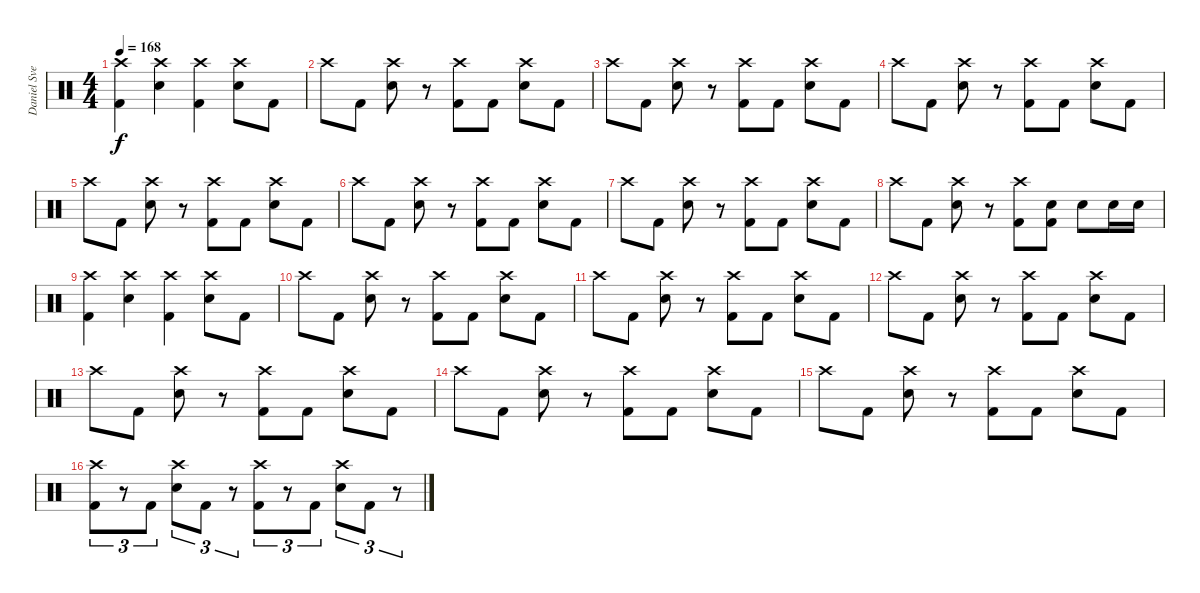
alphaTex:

\track ("Daniel Svensson" "Daniel Sve") {instrument percussion}
\staff {score}
\articulation defaults
\ts (4 4)
\tempo 168
\clef neutral
\ks c
("Crash high (hit)" "Kick (hit) 2").4{dy f} ("Crash high (hit)" "Electric Snare (hit)").4 ("Crash high (hit)" "Kick (hit) 2").4 ("Crash high (hit)" "Electric Snare (hit)").8 "Kick (hit) 2".8 |
"Crash high (hit)".8 "Kick (hit) 2".8 ("Crash high (hit)" "Electric Snare (hit)").8 r.8 ("Crash high (hit)" "Kick (hit) 2").8 "Kick (hit) 2".8 ("Crash high (hit)" "Electric Snare (hit)").8 "Kick (hit) 2".8 |
"Crash high (hit)".8 "Kick (hit) 2".8 ("Crash high (hit)" "Electric Snare (hit)").8 r.8 ("Crash high (hit)" "Kick (hit) 2").8 "Kick (hit) 2".8 ("Crash high (hit)" "Electric Snare (hit)").8 "Kick (hit) 2".8 |
"Crash high (hit)".8 "Kick (hit) 2".8 ("Crash high (hit)" "Electric Snare (hit)").8 r.8 ("Crash high (hit)" "Kick (hit) 2").8 "Kick (hit) 2".8 ("Crash high (hit)" "Electric Snare (hit)").8 "Kick (hit) 2".8 |
"Crash high (hit)".8 "Kick (hit) 2".8 ("Crash high (hit)" "Electric Snare (hit)").8 r.8 ("Crash high (hit)" "Kick (hit) 2").8 "Kick (hit) 2".8 ("Crash high (hit)" "Electric Snare (hit)").8 "Kick (hit) 2".8 |
"Crash high (hit)".8 "Kick (hit) 2".8 ("Crash high (hit)" "Electric Snare (hit)").8 r.8 ("Crash high (hit)" "Kick (hit) 2").8 "Kick (hit) 2".8 ("Crash high (hit)" "Electric Snare (hit)").8 "Kick (hit) 2".8 |
"Crash high (hit)".8 "Kick (hit) 2".8 ("Crash high (hit)" "Electric Snare (hit)").8 r.8 ("Crash high (hit)" "Kick (hit) 2").8 "Kick (hit) 2".8 ("Crash high (hit)" "Electric Snare (hit)").8 "Kick (hit) 2".8 |
"Crash high (hit)".8 "Kick (hit) 2".8 ("Crash high (hit)" "Electric Snare (hit)").8 r.8 ("Crash high (hit)" "Kick (hit) 2").8 ("Electric Snare (hit)" "Kick (hit) 2").8 "Electric Snare (hit)".8 "Electric Snare (hit)".16 "Electric Snare (hit)".16 |
("Crash high (hit)" "Kick (hit) 2").4 ("Crash high (hit)" "Electric Snare (hit)").4 ("Crash high (hit)" "Kick (hit) 2").4 ("Crash high (hit)" "Electric Snare (hit)").8 "Kick (hit) 2".8 |
"Crash high (hit)".8 "Kick (hit) 2".8 ("Crash high (hit)" "Electric Snare (hit)").8 r.8 ("Crash high (hit)" "Kick (hit) 2").8 "Kick (hit) 2".8 ("Crash high (hit)" "Electric Snare (hit)").8 "Kick (hit) 2".8 |
"Crash high (hit)".8 "Kick (hit) 2".8 ("Crash high (hit)" "Electric Snare (hit)").8 r.8 ("Crash high (hit)" "Kick (hit) 2").8 "Kick (hit) 2".8 ("Crash high (hit)" "Electric Snare (hit)").8 "Kick (hit) 2".8 |
"Crash high (hit)".8 "Kick (hit) 2".8 ("Crash high (hit)" "Electric Snare (hit)").8 r.8 ("Crash high (hit)" "Kick (hit) 2").8 "Kick (hit) 2".8 ("Crash high (hit)" "Electric Snare (hit)").8 "Kick (hit) 2".8 |
"Crash high (hit)".8 "Kick (hit) 2".8 ("Crash high (hit)" "Electric Snare (hit)").8 r.8 ("Crash high (hit)" "Kick (hit) 2").8 "Kick (hit) 2".8 ("Crash high (hit)" "Electric Snare (hit)").8 "Kick (hit) 2".8 |
"Crash high (hit)".8 "Kick (hit) 2".8 ("Crash high (hit)" "Electric Snare (hit)").8 r.8 ("Crash high (hit)" "Kick (hit) 2").8 "Kick (hit) 2".8 ("Crash high (hit)" "Electric Snare (hit)").8 "Kick (hit) 2".8 |
"Crash high (hit)".8 "Kick (hit) 2".8 ("Crash high (hit)" "Electric Snare (hit)").8 r.8 ("Crash high (hit)" "Kick (hit) 2").8 "Kick (hit) 2".8 ("Crash high (hit)" "Electric Snare (hit)").8 "Kick (hit) 2".8 |
("Crash high (hit)" "Kick (hit) 2").8{tu (3 2)} r.8{tu (3 2)} "Kick (hit) 2".8{tu (3 2)} ("Crash high (hit)" "Electric Snare (hit)").8{tu (3 2)} "Kick (hit) 2".8{tu (3 2)} r.8{tu (3 2)} ("Crash high (hit)" "Kick (hit) 2").8{tu (3 2)} r.8{tu (3 2)} "Kick (hit) 2".8{tu (3 2)} ("Crash high (hit)" "Electric Snare (hit)").8{tu (3 2)} "Kick (hit) 2".8{tu (3 2)} r.8{tu (3 2)}
